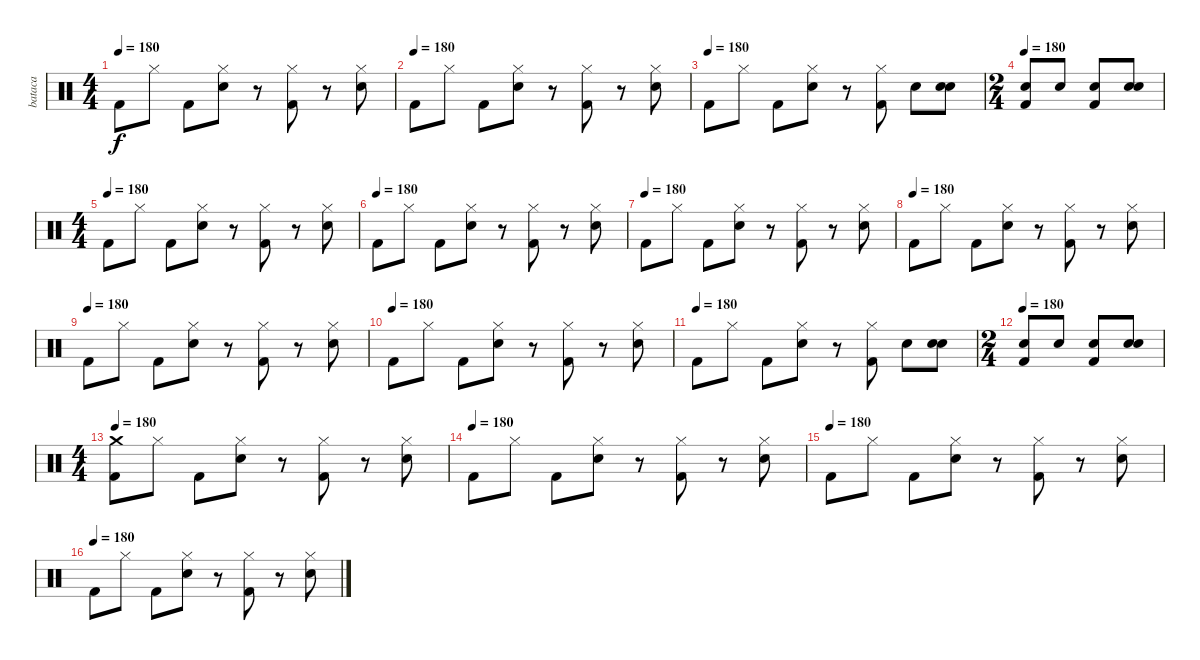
\track ("bataca" "bataca") {instrument percussion}
\staff {score}
\articulation defaults
\ts (4 4)
\tempo 180
\clef neutral
\ks c "Kick (hit) 2".8{dy f} "Hi-Hat (closed)".8 "Kick (hit) 2".8
("Hi-Hat (closed)" "Snare (hit) 2").8 r.8 ("Hi-Hat (closed)" "Kick (hit) 2").8 r.8 ("Hi-Hat (closed)" "Snare (hit) 2").8 |
\tempo (180)
"Kick (hit) 2".8 "Hi-Hat (closed)".8 "Kick (hit) 2".8 ("Hi-Hat (closed)" "Snare (hit) 2").8 r.8 ("Hi-Hat (closed)" "Kick (hit) 2").8 r.8 ("Hi-Hat (closed)" "Snare (hit) 2").8 |
\tempo (180)
"Kick (hit) 2".8 "Hi-Hat (closed)".8 "Kick (hit) 2".8 ("Hi-Hat (closed)" "Snare (hit) 2").8 r.8 ("Hi-Hat (closed)" "Kick (hit) 2").8 "Snare (hit) 2".8 ("Snare (hit) 2" "Snare (hit) 2").8 |
\ts (2 4)
\tempo 180
("Snare (hit) 2" "Kick (hit) 2").8 "Snare (hit) 2".8 ("Snare (hit) 2" "Kick (hit) 2").8 ("Snare (hit) 2" "Snare (hit) 2").8 |
\ts (4 4)
\tempo (180)
"Kick (hit) 2".8 "Hi-Hat (closed)".8 "Kick (hit) 2".8 ("Hi-Hat (closed)" "Snare (hit) 2").8 r.8 ("Hi-Hat (closed)" "Kick (hit) 2").8 r.8 ("Hi-Hat (closed)" "Snare (hit) 2").8 |
\tempo (180)
"Kick (hit) 2".8 "Hi-Hat (closed)".8 "Kick (hit) 2".8 ("Hi-Hat (closed)" "Snare (hit) 2").8 r.8 ("Hi-Hat (closed)" "Kick (hit) 2").8 r.8 ("Hi-Hat (closed)" "Snare (hit) 2").8 |
\tempo (180)
"Kick (hit) 2".8 "Hi-Hat (closed)".8 "Kick (hit) 2".8 ("Hi-Hat (closed)" "Snare (hit) 2").8 r.8 ("Hi-Hat (closed)" "Kick (hit) 2").8 r.8 ("Hi-Hat (closed)" "Snare (hit) 2").8 |
\tempo (180)
"Kick (hit) 2".8 "Hi-Hat (closed)".8 "Kick (hit) 2".8 ("Hi-Hat (closed)" "Snare (hit) 2").8 r.8 ("Hi-Hat (closed)" "Kick (hit) 2").8 r.8 ("Hi-Hat (closed)" "Snare (hit) 2").8 |
\tempo (180)
"Kick (hit) 2".8 "Hi-Hat (closed)".8 "Kick (hit) 2".8 ("Hi-Hat (closed)" "Snare (hit) 2").8 r.8 ("Hi-Hat (closed)" "Kick (hit) 2").8 r.8 ("Hi-Hat (closed)" "Snare (hit) 2").8 |
\tempo (180)
"Kick (hit) 2".8 "Hi-Hat (closed)".8 "Kick (hit) 2".8 ("Hi-Hat (closed)" "Snare (hit) 2").8 r.8 ("Hi-Hat (closed)" "Kick (hit) 2").8 r.8 ("Hi-Hat (closed)" "Snare (hit) 2").8 |
\tempo (180)
"Kick (hit) 2".8 "Hi-Hat (closed)".8 "Kick (hit) 2".8 ("Hi-Hat (closed)" "Snare (hit) 2").8 r.8 ("Hi-Hat (closed)" "Kick (hit) 2").8 "Snare (hit) 2".8 ("Snare (hit) 2" "Snare (hit) 2").8 |
\ts (2 4)
\tempo 180
("Snare (hit) 2" "Kick (hit) 2").8 "Snare (hit) 2".8 ("Snare (hit) 2" "Kick (hit) 2").8 ("Snare (hit) 2" "Snare (hit) 2").8 |
\ts (4 4)
\tempo 180
("Crash medium (hit)" "Kick (hit) 2").8 "Hi-Hat (closed)".8 "Kick (hit) 2".8 ("Hi-Hat (closed)" "Snare (hit) 2").8 r.8 ("Hi-Hat (closed)" "Kick (hit) 2").8 r.8 ("Hi-Hat (closed)" "Snare (hit) 2").8 |
\tempo (180)
"Kick (hit) 2".8 "Hi-Hat (closed)".8 "Kick (hit) 2".8 ("Hi-Hat (closed)" "Snare (hit) 2").8 r.8 ("Hi-Hat (closed)" "Kick (hit) 2").8 r.8 ("Hi-Hat (closed)" "Snare (hit) 2").8 |
\tempo (180)
"Kick (hit) 2".8 "Hi-Hat (closed)".8 "Kick (hit) 2".8 ("Hi-Hat (closed)" "Snare (hit) 2").8 r.8 ("Hi-Hat (closed)" "Kick (hit) 2").8 r.8 ("Hi-Hat (closed)" "Snare (hit) 2").8 |
\tempo (180)
"Kick (hit) 2".8 "Hi-Hat (closed)".8 "Kick (hit) 2".8 ("Hi-Hat (closed)" "Snare (hit) 2").8 r.8 ("Hi-Hat (closed)" "Kick (hit) 2").8 r.8 ("Hi-Hat (closed)" "Snare (hit) 2").8
